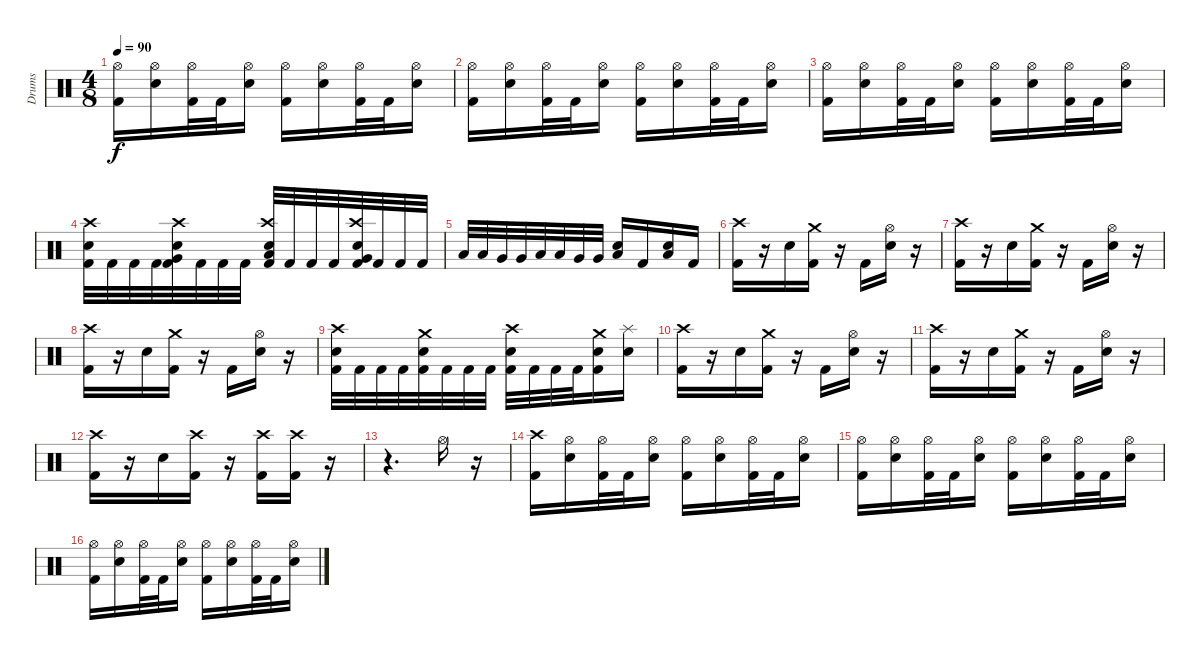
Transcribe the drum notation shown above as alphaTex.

\track ("Drums" "Drums") {instrument percussion}
\staff {score}
\articulation defaults
\ts (4 8)
\tempo 90
\clef neutral
\ks c
("Kick (hit) 2" "Hi-Hat (open)").16{dy f} ("Electric Snare (hit)" "Hi-Hat (open)").16 ("Kick (hit) 2" "Hi-Hat (open)").32 "Kick (hit) 2".32 ("Electric Snare (hit)" "Hi-Hat (open)").16 ("Kick (hit) 2" "Hi-Hat (open)").16 ("Electric Snare (hit)" "Hi-Hat (open)").16 ("Kick (hit) 2" "Hi-Hat (open)").32 "Kick (hit) 2".32 ("Electric Snare (hit)" "Hi-Hat (open)").16 |
("Kick (hit) 2" "Hi-Hat (open)").16 ("Electric Snare (hit)" "Hi-Hat (open)").16 ("Kick (hit) 2" "Hi-Hat (open)").32 "Kick (hit) 2".32 ("Electric Snare (hit)" "Hi-Hat (open)").16 ("Kick (hit) 2" "Hi-Hat (open)").16 ("Electric Snare (hit)" "Hi-Hat (open)").16 ("Kick (hit) 2" "Hi-Hat (open)").32 "Kick (hit) 2".32 ("Electric Snare (hit)" "Hi-Hat (open)").16 |
("Kick (hit) 2" "Hi-Hat (open)").16 ("Electric Snare (hit)" "Hi-Hat (open)").16 ("Kick (hit) 2" "Hi-Hat (open)").32 "Kick (hit) 2".32 ("Electric Snare (hit)" "Hi-Hat (open)").16 ("Kick (hit) 2" "Hi-Hat (open)").16 ("Electric Snare (hit)" "Hi-Hat (open)").16 ("Kick (hit) 2" "Hi-Hat (open)").32 "Kick (hit) 2".32 ("Electric Snare (hit)" "Hi-Hat (open)").16 |
("Kick (hit) 2" "Electric Snare (hit)" "Crash high (hit)").32 "Kick (hit) 2".32 "Kick (hit) 2".32 "Kick (hit) 2".32 ("Electric Snare (hit)" "Very Low Tom (hit)" "Kick (hit) 2" "Crash high (hit)").32 "Kick (hit) 2".32 "Kick (hit) 2".32 "Kick (hit) 2".32 ("Electric Snare (hit)" "Low Floor Tom (hit)" "Kick (hit) 2" "Crash high (hit)").32 "Kick (hit) 2".32 "Kick (hit) 2".32 "Kick (hit) 2".32 ("Electric Snare (hit)" "Very Low Tom (hit)" "Kick (hit) 2" "Crash high (hit)").32 "Kick (hit) 2".32 "Kick (hit) 2".32 "Kick (hit) 2".32 |
"Low Tom (hit)".32 "Low Tom (hit)".32 "Very Low Tom (hit)".32 "Very Low Tom (hit)".32 "Low Tom (hit)".32 "Low Tom (hit)".32 "Very Low Tom (hit)".32 "Very Low Tom (hit)".32 ("Electric Snare (hit)" "Low Floor Tom (hit)").16 "Kick (hit) 2".16 ("Electric Snare (hit)" "Low Floor Tom (hit)").16 "Kick (hit) 2".16 |
("Kick (hit) 2" "Crash high (hit)").16 r.16 "Electric Snare (hit)".16 ("Kick (hit) 2" "Crash medium (hit)").16 r.16 "Kick (hit) 2".16 ("Electric Snare (hit)" "Hi-Hat (open)").16 r.16 |
("Kick (hit) 2" "Crash high (hit)").16 r.16 "Electric Snare (hit)".16 ("Kick (hit) 2" "Crash medium (hit)").16 r.16 "Kick (hit) 2".16 ("Electric Snare (hit)" "Hi-Hat (open)").16 r.16 |
("Kick (hit) 2" "Crash high (hit)").16 r.16 "Electric Snare (hit)".16 ("Kick (hit) 2" "Crash medium (hit)").16 r.16 "Kick (hit) 2".16 ("Electric Snare (hit)" "Hi-Hat (open)").16 r.16 |
("Kick (hit) 2" "Crash high (hit)" "Electric Snare (hit)").32 "Kick (hit) 2".32 "Kick (hit) 2".32 "Kick (hit) 2".32 ("Kick (hit) 2" "Crash medium (hit)" "Electric Snare (hit)").32 "Kick (hit) 2".32 "Kick (hit) 2".32 "Kick (hit) 2".32 ("Kick (hit) 2" "Crash high (hit)" "Electric Snare (hit)").32 "Kick (hit) 2".32 "Kick (hit) 2".32 "Kick (hit) 2".32 ("Kick (hit) 2" "Crash medium (hit)" "Electric Snare (hit)").16 ("Electric Snare (hit)" "Splash (hit)").16 |
("Kick (hit) 2" "Crash high (hit)").16 r.16 "Electric Snare (hit)".16 ("Kick (hit) 2" "Crash medium (hit)").16 r.16 "Kick (hit) 2".16 ("Electric Snare (hit)" "Hi-Hat (open)").16 r.16 |
("Kick (hit) 2" "Crash high (hit)").16 r.16 "Electric Snare (hit)".16 ("Kick (hit) 2" "Crash medium (hit)").16 r.16 "Kick (hit) 2".16 ("Electric Snare (hit)" "Hi-Hat (open)").16 r.16 |
("Kick (hit) 2" "Crash high (hit)").16 r.16 "Electric Snare (hit)".16 ("Kick (hit) 2" "Crash high (hit)").16 r.16 ("Kick (hit) 2" "Crash high (hit)").16 ("Kick (hit) 2" "Crash high (hit)").16 r.16 |
r.4{d} "Hi-Hat (open)".16 r.16 |
("Kick (hit) 2" "Crash high (hit)").16 ("Electric Snare (hit)" "Hi-Hat (open)").16 ("Kick (hit) 2" "Hi-Hat (open)").32 "Kick (hit) 2".32 ("Electric Snare (hit)" "Hi-Hat (open)").16 ("Kick (hit) 2" "Hi-Hat (open)").16 ("Electric Snare (hit)" "Hi-Hat (open)").16 ("Kick (hit) 2" "Hi-Hat (open)").32 "Kick (hit) 2".32 ("Electric Snare (hit)" "Hi-Hat (open)").16 |
("Kick (hit) 2" "Hi-Hat (open)").16 ("Electric Snare (hit)" "Hi-Hat (open)").16 ("Kick (hit) 2" "Hi-Hat (open)").32 "Kick (hit) 2".32 ("Electric Snare (hit)" "Hi-Hat (open)").16 ("Kick (hit) 2" "Hi-Hat (open)").16 ("Electric Snare (hit)" "Hi-Hat (open)").16 ("Kick (hit) 2" "Hi-Hat (open)").32 "Kick (hit) 2".32 ("Electric Snare (hit)" "Hi-Hat (open)").16 |
("Kick (hit) 2" "Hi-Hat (open)").16 ("Electric Snare (hit)" "Hi-Hat (open)").16 ("Kick (hit) 2" "Hi-Hat (open)").32 "Kick (hit) 2".32 ("Electric Snare (hit)" "Hi-Hat (open)").16 ("Kick (hit) 2" "Hi-Hat (open)").16 ("Electric Snare (hit)" "Hi-Hat (open)").16 ("Kick (hit) 2" "Hi-Hat (open)").32 "Kick (hit) 2".32 ("Electric Snare (hit)" "Hi-Hat (open)").16
